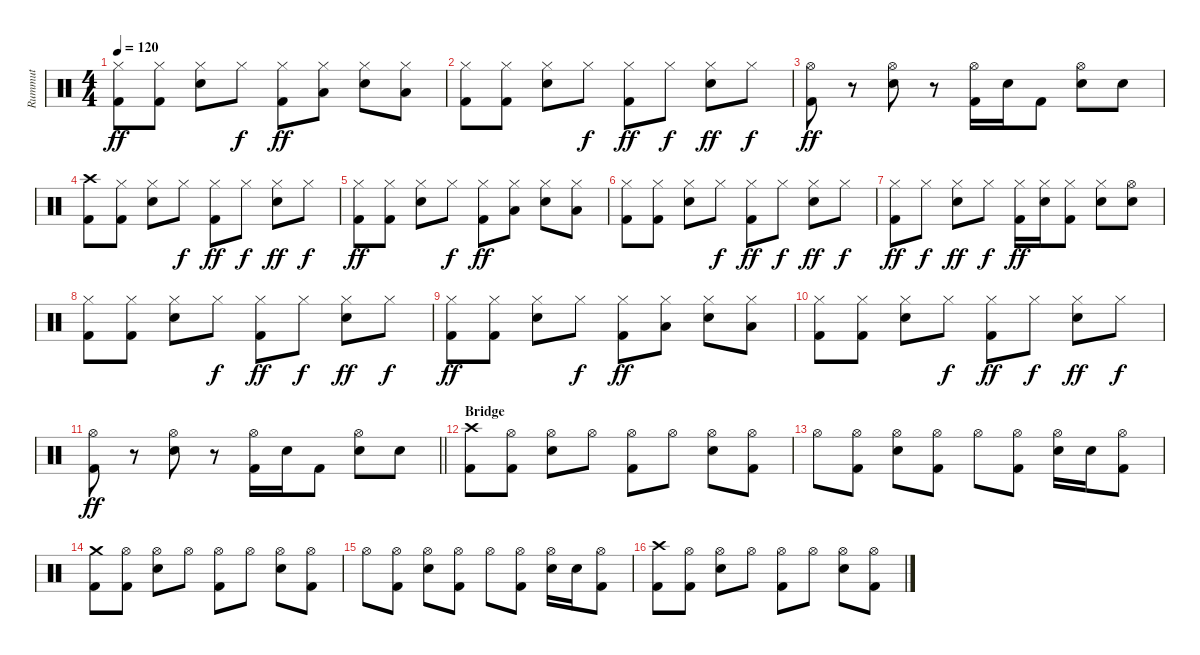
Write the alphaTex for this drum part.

\track ("Rummut" "Rummut") {instrument percussion}
\staff {score}
\articulation defaults
\ts (4 4)
\tempo 120
\clef neutral
\ks c
("Hi-Hat (closed)" "Kick (hit) 2").8{dy ff} ("Hi-Hat (closed)" "Kick (hit) 2").8 ("Hi-Hat (closed)" "Snare (hit) 2").8 "Hi-Hat (closed)".8{dy f} ("Hi-Hat (closed)" "Kick (hit) 2").8{dy ff} ("Hi-Hat (closed)" "Low Tom (hit)").8 ("Hi-Hat (closed)" "Snare (hit) 2").8 ("Hi-Hat (closed)" "Low Floor Tom (hit)").8 |
("Hi-Hat (closed)" "Kick (hit) 2").8 ("Hi-Hat (closed)" "Kick (hit) 2").8 ("Hi-Hat (closed)" "Snare (hit) 2").8 "Hi-Hat (closed)".8{dy f} ("Hi-Hat (closed)" "Kick (hit) 2").8{dy ff} "Hi-Hat (closed)".8{dy f} ("Hi-Hat (closed)" "Snare (hit) 2").8{dy ff} "Hi-Hat (closed)".8{dy f} |
("Hi-Hat (open)" "Kick (hit) 2").8{dy ff} r.8 ("Hi-Hat (open)" "Snare (hit) 2").8 r.8 ("Hi-Hat (open)" "Kick (hit) 2").16 "Snare (hit) 2".16 "Kick (hit) 2".8 ("Hi-Hat (open)" "Snare (hit) 2").8 "Snare (hit) 2".8 |
("Crash high (hit)" "Kick (hit) 2").8 ("Hi-Hat (closed)" "Kick (hit) 2").8 ("Hi-Hat (closed)" "Snare (hit) 2").8 "Hi-Hat (closed)".8{dy f} ("Hi-Hat (closed)" "Kick (hit) 2").8{dy ff} "Hi-Hat (closed)".8{dy f} ("Hi-Hat (closed)" "Snare (hit) 2").8{dy ff} "Hi-Hat (closed)".8{dy f} |
("Hi-Hat (closed)" "Kick (hit) 2").8{dy ff} ("Hi-Hat (closed)" "Kick (hit) 2").8 ("Hi-Hat (closed)" "Snare (hit) 2").8 "Hi-Hat (closed)".8{dy f} ("Hi-Hat (closed)" "Kick (hit) 2").8{dy ff} ("Hi-Hat (closed)" "Low Tom (hit)").8 ("Hi-Hat (closed)" "Snare (hit) 2").8 ("Hi-Hat (closed)" "Low Floor Tom (hit)").8 |
("Hi-Hat (closed)" "Kick (hit) 2").8 ("Hi-Hat (closed)" "Kick (hit) 2").8 ("Hi-Hat (closed)" "Snare (hit) 2").8 "Hi-Hat (closed)".8{dy f} ("Hi-Hat (closed)" "Kick (hit) 2").8{dy ff} "Hi-Hat (closed)".8{dy f} ("Hi-Hat (closed)" "Snare (hit) 2").8{dy ff} "Hi-Hat (closed)".8{dy f} |
("Hi-Hat (closed)" "Kick (hit) 2").8{dy ff} "Hi-Hat (closed)".8{dy f} ("Hi-Hat (closed)" "Snare (hit) 2").8{dy ff} "Hi-Hat (closed)".8{dy f} ("Hi-Hat (closed)" "Kick (hit) 2").16{dy ff} ("Hi-Hat (closed)" "Snare (hit) 2").16 ("Hi-Hat (closed)" "Kick (hit) 2").8 ("Hi-Hat (closed)" "Snare (hit) 2").8 ("Hi-Hat (open)" "Snare (hit) 2").8 |
("Hi-Hat (closed)" "Kick (hit) 2").8 ("Hi-Hat (closed)" "Kick (hit) 2").8 ("Hi-Hat (closed)" "Snare (hit) 2").8 "Hi-Hat (closed)".8{dy f} ("Hi-Hat (closed)" "Kick (hit) 2").8{dy ff} "Hi-Hat (closed)".8{dy f} ("Hi-Hat (closed)" "Snare (hit) 2").8{dy ff} "Hi-Hat (closed)".8{dy f} |
("Hi-Hat (closed)" "Kick (hit) 2").8{dy ff} ("Hi-Hat (closed)" "Kick (hit) 2").8 ("Hi-Hat (closed)" "Snare (hit) 2").8 "Hi-Hat (closed)".8{dy f} ("Hi-Hat (closed)" "Kick (hit) 2").8{dy ff} ("Hi-Hat (closed)" "Low Tom (hit)").8 ("Hi-Hat (closed)" "Snare (hit) 2").8 ("Hi-Hat (closed)" "Low Floor Tom (hit)").8 |
("Hi-Hat (closed)" "Kick (hit) 2").8 ("Hi-Hat (closed)" "Kick (hit) 2").8 ("Hi-Hat (closed)" "Snare (hit) 2").8 "Hi-Hat (closed)".8{dy f} ("Hi-Hat (closed)" "Kick (hit) 2").8{dy ff} "Hi-Hat (closed)".8{dy f} ("Hi-Hat (closed)" "Snare (hit) 2").8{dy ff} "Hi-Hat (closed)".8{dy f} |
\barLineRight lightlight
("Hi-Hat (open)" "Kick (hit) 2").8{dy ff} r.8 ("Hi-Hat (open)" "Snare (hit) 2").8 r.8 ("Hi-Hat (open)" "Kick (hit) 2").16 "Snare (hit) 2".16 "Kick (hit) 2".8 ("Hi-Hat (open)" "Snare (hit) 2").8 "Snare (hit) 2".8 |
\section ("" "Bridge")
("Crash high (hit)" "Kick (hit) 2").8 ("Hi-Hat (open)" "Kick (hit) 2").8 ("Hi-Hat (open)" "Snare (hit) 2").8 "Hi-Hat (open)".8 ("Hi-Hat (open)" "Kick (hit) 2").8 "Hi-Hat (open)".8 ("Hi-Hat (open)" "Snare (hit) 2").8 ("Hi-Hat (open)" "Kick (hit) 2").8 |
"Hi-Hat (open)".8 ("Hi-Hat (open)" "Kick (hit) 2").8 ("Hi-Hat (open)" "Snare (hit) 2").8 ("Hi-Hat (open)" "Kick (hit) 2").8 "Hi-Hat (open)".8 ("Hi-Hat (open)" "Kick (hit) 2").8 ("Hi-Hat (open)" "Snare (hit) 2").16 "Snare (hit) 2".16 ("Hi-Hat (open)" "Kick (hit) 2").8 |
("Crash medium (hit)" "Kick (hit) 2").8 ("Hi-Hat (open)" "Kick (hit) 2").8 ("Hi-Hat (open)" "Snare (hit) 2").8 "Hi-Hat (open)".8 ("Hi-Hat (open)" "Kick (hit) 2").8 "Hi-Hat (open)".8 ("Hi-Hat (open)" "Snare (hit) 2").8 ("Hi-Hat (open)" "Kick (hit) 2").8 |
"Hi-Hat (open)".8 ("Hi-Hat (open)" "Kick (hit) 2").8 ("Hi-Hat (open)" "Snare (hit) 2").8 ("Hi-Hat (open)" "Kick (hit) 2").8 "Hi-Hat (open)".8 ("Hi-Hat (open)" "Kick (hit) 2").8 ("Hi-Hat (open)" "Snare (hit) 2").16 "Snare (hit) 2".16 ("Hi-Hat (open)" "Kick (hit) 2").8 |
("Crash high (hit)" "Kick (hit) 2").8 ("Hi-Hat (open)" "Kick (hit) 2").8 ("Hi-Hat (open)" "Snare (hit) 2").8 "Hi-Hat (open)".8 ("Hi-Hat (open)" "Kick (hit) 2").8 "Hi-Hat (open)".8 ("Hi-Hat (open)" "Snare (hit) 2").8 ("Hi-Hat (open)" "Kick (hit) 2").8
